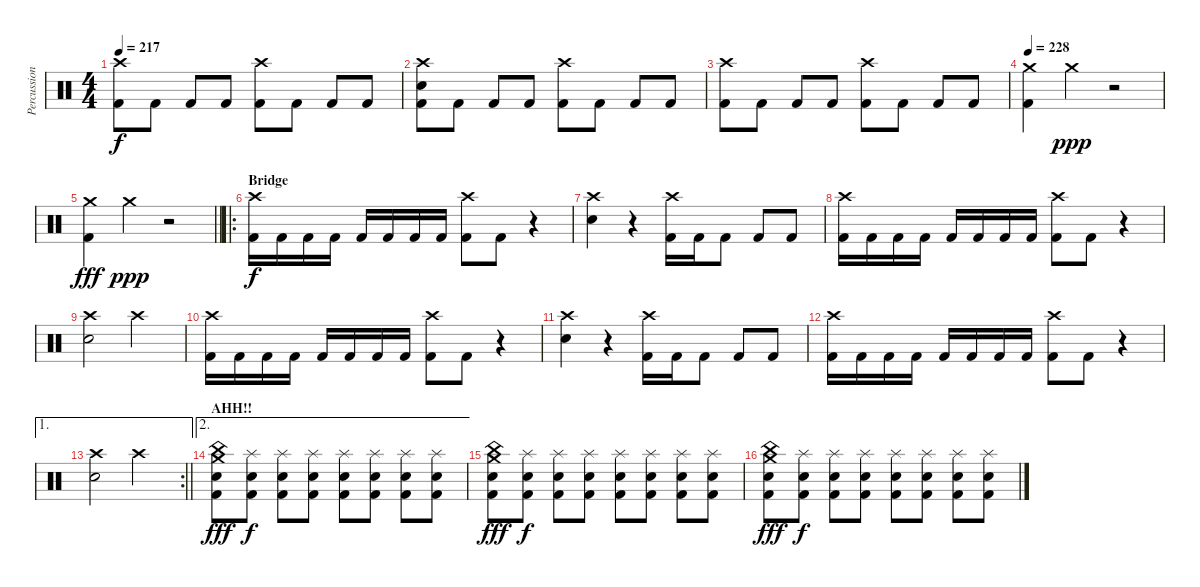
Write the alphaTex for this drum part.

\track ("Percussion" "Percussion") {instrument percussion}
\staff {score}
\articulation defaults
\ts (4 4)
\tempo 217
\clef neutral
\ks c
("Crash high (hit)" "Kick (hit) 2").8{dy f} "Kick (hit) 2".8 "Kick (hit) 2".8 "Kick (hit) 2".8 ("Crash high (hit)" "Kick (hit) 2").8 "Kick (hit) 2".8 "Kick (hit) 2".8 "Kick (hit) 2".8 |
("Crash high (hit)" "Electric Snare (hit)" "Kick (hit) 2").8 "Kick (hit) 2".8 "Kick (hit) 2".8 "Kick (hit) 2".8 ("Crash high (hit)" "Kick (hit) 2").8 "Kick (hit) 2".8 "Kick (hit) 2".8 "Kick (hit) 2".8 |
("Crash high (hit)" "Kick (hit) 2").8 "Kick (hit) 2".8 "Kick (hit) 2".8 "Kick (hit) 2".8 ("Crash high (hit)" "Kick (hit) 2").8 "Kick (hit) 2".8 "Kick (hit) 2".8 "Kick (hit) 2".8 |
\tempo 228
("Crash medium (hit)" "Kick (hit) 2").4 "Crash medium (hit)".4{dy ppp} r.2 |
\barLineRight lightlight
("Crash medium (hit)" "Kick (hit) 2").4{dy fff} "Crash medium (hit)".4{dy ppp} r.2 |
\ro
\section ("" "Bridge")
("Crash high (hit)" "Kick (hit) 2").16{dy f} "Kick (hit) 2".16 "Kick (hit) 2".16 "Kick (hit) 2".16 "Kick (hit) 2".16 "Kick (hit) 2".16 "Kick (hit) 2".16 "Kick (hit) 2".16 ("Crash high (hit)" "Kick (hit) 2").8 "Kick (hit) 2".8 r.4 |
("Crash high (hit)" "Electric Snare (hit)").4 r.4 ("Crash high (hit)" "Kick (hit) 2").16 "Kick (hit) 2".16 "Kick (hit) 2".8 "Kick (hit) 2".8 "Kick (hit) 2".8 |
("Crash high (hit)" "Kick (hit) 2").16 "Kick (hit) 2".16 "Kick (hit) 2".16 "Kick (hit) 2".16 "Kick (hit) 2".16 "Kick (hit) 2".16 "Kick (hit) 2".16 "Kick (hit) 2".16 ("Crash high (hit)" "Kick (hit) 2").8 "Kick (hit) 2".8 r.4 |
("Crash high (hit)" "Electric Snare (hit)").2 "Crash high (hit)".2 |
("Crash high (hit)" "Kick (hit) 2").16 "Kick (hit) 2".16 "Kick (hit) 2".16 "Kick (hit) 2".16 "Kick (hit) 2".16 "Kick (hit) 2".16 "Kick (hit) 2".16 "Kick (hit) 2".16 ("Crash high (hit)" "Kick (hit) 2").8 "Kick (hit) 2".8 r.4 |
("Crash high (hit)" "Electric Snare (hit)").4 r.4 ("Crash high (hit)" "Kick (hit) 2").16 "Kick (hit) 2".16 "Kick (hit) 2".8 "Kick (hit) 2".8 "Kick (hit) 2".8 |
("Crash high (hit)" "Kick (hit) 2").16 "Kick (hit) 2".16 "Kick (hit) 2".16 "Kick (hit) 2".16 "Kick (hit) 2".16 "Kick (hit) 2".16 "Kick (hit) 2".16 "Kick (hit) 2".16 ("Crash high (hit)" "Kick (hit) 2").8 "Kick (hit) 2".8 r.4 |
\ae 1
\rc 2
\barLineRight lightlight
("Crash high (hit)" "Electric Snare (hit)").2 "Crash high (hit)".2 |
\ae 2
\section ("" "AHH!!")
("Crash medium (hit)" "China (hit)" "Electric Snare (hit)" "Kick (hit) 2").8{dy fff} ("Splash (hit)" "Electric Snare (hit)" "Kick (hit) 2").8{dy f} ("Splash (hit)" "Electric Snare (hit)" "Kick (hit) 2").8 ("Splash (hit)" "Electric Snare (hit)" "Kick (hit) 2").8 ("Splash (hit)" "Electric Snare (hit)" "Kick (hit) 2").8 ("Splash (hit)" "Electric Snare (hit)" "Kick (hit) 2").8 ("Splash (hit)" "Electric Snare (hit)" "Kick (hit) 2").8 ("Splash (hit)" "Electric Snare (hit)" "Kick (hit) 2").8 |
("Crash medium (hit)" "China (hit)" "Electric Snare (hit)" "Kick (hit) 2").8{dy fff} ("Splash (hit)" "Electric Snare (hit)" "Kick (hit) 2").8{dy f} ("Splash (hit)" "Electric Snare (hit)" "Kick (hit) 2").8 ("Splash (hit)" "Electric Snare (hit)" "Kick (hit) 2").8 ("Splash (hit)" "Electric Snare (hit)" "Kick (hit) 2").8 ("Splash (hit)" "Electric Snare (hit)" "Kick (hit) 2").8 ("Splash (hit)" "Electric Snare (hit)" "Kick (hit) 2").8 ("Splash (hit)" "Electric Snare (hit)" "Kick (hit) 2").8 |
("Crash medium (hit)" "China (hit)" "Electric Snare (hit)" "Kick (hit) 2").8{dy fff} ("Splash (hit)" "Electric Snare (hit)" "Kick (hit) 2").8{dy f} ("Splash (hit)" "Electric Snare (hit)" "Kick (hit) 2").8 ("Splash (hit)" "Electric Snare (hit)" "Kick (hit) 2").8 ("Splash (hit)" "Electric Snare (hit)" "Kick (hit) 2").8 ("Splash (hit)" "Electric Snare (hit)" "Kick (hit) 2").8 ("Splash (hit)" "Electric Snare (hit)" "Kick (hit) 2").8 ("Splash (hit)" "Electric Snare (hit)" "Kick (hit) 2").8
